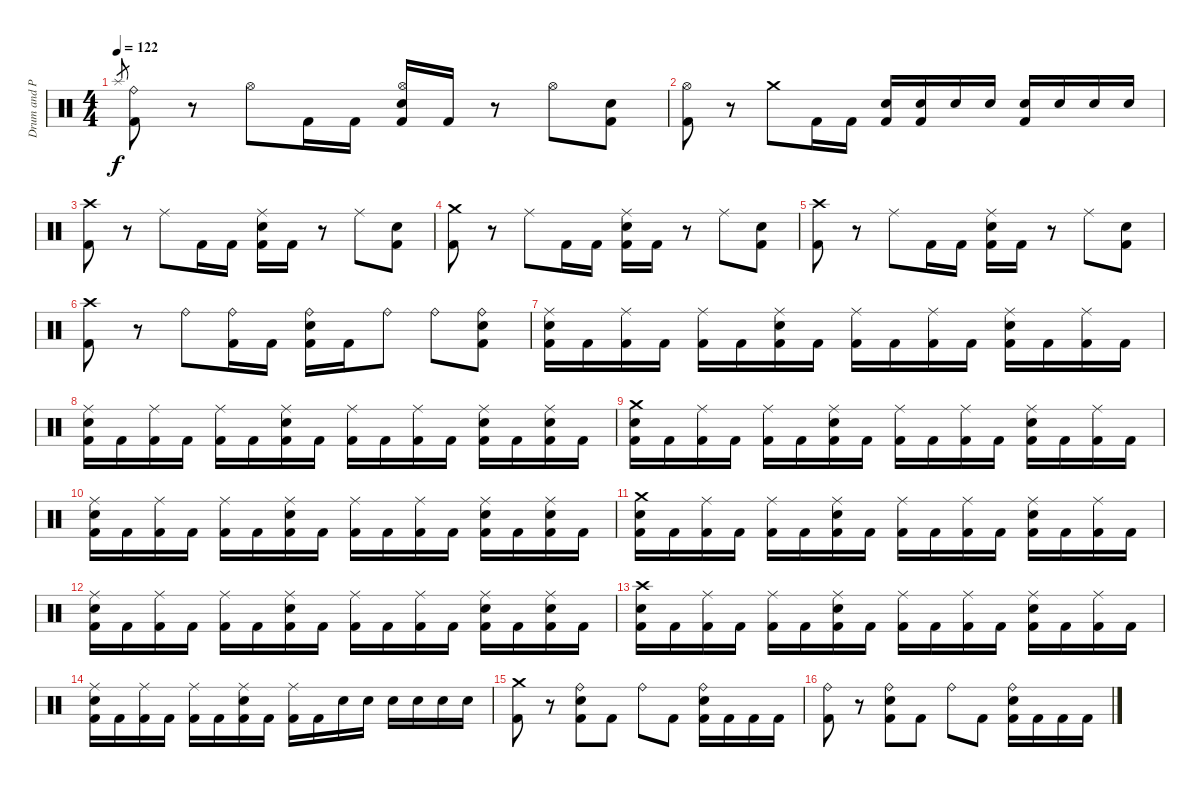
\track ("Drum and Persscusian" "Drum and P") {instrument percussion}
\staff {score}
\articulation defaults
\ts (4 4)
\tempo 122
\clef neutral
\ks c "Splash (hit)".8{gr dy f}
("Ride (bell)" "Kick (hit) 2").8 r.8 "Hi-Hat (open)".8 "Kick (hit) 2".16 "Kick (hit) 2".16 ("Hi-Hat (open)" "Snare (hit) 2" "Kick (hit) 2").16 "Kick (hit) 2".16 r.8 "Hi-Hat (open)".8 ("Snare (hit) 2" "Kick (hit) 2").8 |
("Hi-Hat (open)" "Kick (hit) 2").8 r.8 "Crash medium (hit)".8 "Kick (hit) 2".16 "Kick (hit) 2".16 ("Snare (hit) 2" "Kick (hit) 2").16 ("Snare (hit) 2" "Kick (hit) 2").16 "Snare (hit) 2".16 "Snare (hit) 2".16 ("Snare (hit) 2" "Kick (hit) 2").16 "Snare (hit) 2".16 "Snare (hit) 2".16 "Snare (hit) 2".16 |
("Crash high (hit)" "Kick (hit) 2").8 r.8 "Ride (middle)".8 "Kick (hit) 2".16 "Kick (hit) 2".16 ("Ride (middle)" "Snare (hit) 2" "Kick (hit) 2").16 "Kick (hit) 2".16 r.8 "Ride (middle)".8 ("Snare (hit) 2" "Kick (hit) 2").8 |
("Crash medium (hit)" "Kick (hit) 2").8 r.8 "Ride (middle)".8 "Kick (hit) 2".16 "Kick (hit) 2".16 ("Ride (middle)" "Snare (hit) 2" "Kick (hit) 2").16 "Kick (hit) 2".16 r.8 "Ride (middle)".8 ("Snare (hit) 2" "Kick (hit) 2").8 |
("Crash high (hit)" "Kick (hit) 2").8 r.8 "Ride (middle)".8 "Kick (hit) 2".16 "Kick (hit) 2".16 ("Ride (middle)" "Snare (hit) 2" "Kick (hit) 2").16 "Kick (hit) 2".16 r.8 "Ride (middle)".8 ("Snare (hit) 2" "Kick (hit) 2").8 |
("Crash high (hit)" "Kick (hit) 2").8 r.8 "Ride (bell)".8 ("Ride (bell)" "Kick (hit) 2").16 "Kick (hit) 2".16 ("Ride (bell)" "Snare (hit) 2" "Kick (hit) 2").16 "Kick (hit) 2".16 "Ride (bell)".8 "Ride (bell)".8 ("Ride (bell)" "Snare (hit) 2" "Kick (hit) 2").8 |
("Ride (middle)" "Snare (hit) 2" "Kick (hit) 2").16 "Kick (hit) 2".16 ("Ride (middle)" "Kick (hit) 2").16 "Kick (hit) 2".16 ("Ride (middle)" "Kick (hit) 2").16 "Kick (hit) 2".16 ("Ride (middle)" "Snare (hit) 2" "Kick (hit) 2").16 "Kick (hit) 2".16 ("Ride (middle)" "Kick (hit) 2").16 "Kick (hit) 2".16 ("Ride (middle)" "Kick (hit) 2").16 "Kick (hit) 2".16 ("Ride (middle)" "Snare (hit) 2" "Kick (hit) 2").16 "Kick (hit) 2".16 ("Ride (middle)" "Kick (hit) 2").16 "Kick (hit) 2".16 |
("Ride (middle)" "Snare (hit) 2" "Kick (hit) 2").16 "Kick (hit) 2".16 ("Ride (middle)" "Kick (hit) 2").16 "Kick (hit) 2".16 ("Ride (middle)" "Kick (hit) 2").16 "Kick (hit) 2".16 ("Ride (middle)" "Snare (hit) 2" "Kick (hit) 2").16 "Kick (hit) 2".16 ("Ride (middle)" "Kick (hit) 2").16 "Kick (hit) 2".16 ("Ride (middle)" "Kick (hit) 2").16 "Kick (hit) 2".16 ("Ride (middle)" "Snare (hit) 2" "Kick (hit) 2").16 "Kick (hit) 2".16 ("Ride (middle)" "Snare (hit) 2" "Kick (hit) 2").16 "Kick (hit) 2".16 |
("Crash medium (hit)" "Snare (hit) 2" "Kick (hit) 2").16 "Kick (hit) 2".16 ("Ride (middle)" "Kick (hit) 2").16 "Kick (hit) 2".16 ("Ride (middle)" "Kick (hit) 2").16 "Kick (hit) 2".16 ("Ride (middle)" "Snare (hit) 2" "Kick (hit) 2").16 "Kick (hit) 2".16 ("Ride (middle)" "Kick (hit) 2").16 "Kick (hit) 2".16 ("Ride (middle)" "Kick (hit) 2").16 "Kick (hit) 2".16 ("Ride (middle)" "Snare (hit) 2" "Kick (hit) 2").16 "Kick (hit) 2".16 ("Ride (middle)" "Kick (hit) 2").16 "Kick (hit) 2".16 |
("Ride (middle)" "Snare (hit) 2" "Kick (hit) 2").16 "Kick (hit) 2".16 ("Ride (middle)" "Kick (hit) 2").16 "Kick (hit) 2".16 ("Ride (middle)" "Kick (hit) 2").16 "Kick (hit) 2".16 ("Ride (middle)" "Snare (hit) 2" "Kick (hit) 2").16 "Kick (hit) 2".16 ("Ride (middle)" "Kick (hit) 2").16 "Kick (hit) 2".16 ("Ride (middle)" "Kick (hit) 2").16 "Kick (hit) 2".16 ("Ride (middle)" "Snare (hit) 2" "Kick (hit) 2").16 "Kick (hit) 2".16 ("Ride (middle)" "Snare (hit) 2" "Kick (hit) 2").16 "Kick (hit) 2".16 |
("Crash medium (hit)" "Snare (hit) 2" "Kick (hit) 2").16 "Kick (hit) 2".16 ("Ride (middle)" "Kick (hit) 2").16 "Kick (hit) 2".16 ("Ride (middle)" "Kick (hit) 2").16 "Kick (hit) 2".16 ("Ride (middle)" "Snare (hit) 2" "Kick (hit) 2").16 "Kick (hit) 2".16 ("Ride (middle)" "Kick (hit) 2").16 "Kick (hit) 2".16 ("Ride (middle)" "Kick (hit) 2").16 "Kick (hit) 2".16 ("Ride (middle)" "Snare (hit) 2" "Kick (hit) 2").16 "Kick (hit) 2".16 ("Ride (middle)" "Kick (hit) 2").16 "Kick (hit) 2".16 |
("Ride (middle)" "Snare (hit) 2" "Kick (hit) 2").16 "Kick (hit) 2".16 ("Ride (middle)" "Kick (hit) 2").16 "Kick (hit) 2".16 ("Ride (middle)" "Kick (hit) 2").16 "Kick (hit) 2".16 ("Ride (middle)" "Snare (hit) 2" "Kick (hit) 2").16 "Kick (hit) 2".16 ("Ride (middle)" "Kick (hit) 2").16 "Kick (hit) 2".16 ("Ride (middle)" "Kick (hit) 2").16 "Kick (hit) 2".16 ("Ride (middle)" "Snare (hit) 2" "Kick (hit) 2").16 "Kick (hit) 2".16 ("Ride (middle)" "Snare (hit) 2" "Kick (hit) 2").16 "Kick (hit) 2".16 |
("Crash high (hit)" "Snare (hit) 2" "Kick (hit) 2").16 "Kick (hit) 2".16 ("Ride (middle)" "Kick (hit) 2").16 "Kick (hit) 2".16 ("Ride (middle)" "Kick (hit) 2").16 "Kick (hit) 2".16 ("Ride (middle)" "Snare (hit) 2" "Kick (hit) 2").16 "Kick (hit) 2".16 ("Ride (middle)" "Kick (hit) 2").16 "Kick (hit) 2".16 ("Ride (middle)" "Kick (hit) 2").16 "Kick (hit) 2".16 ("Ride (middle)" "Snare (hit) 2" "Kick (hit) 2").16 "Kick (hit) 2".16 ("Ride (middle)" "Kick (hit) 2").16 "Kick (hit) 2".16 |
("Ride (middle)" "Snare (hit) 2" "Kick (hit) 2").16 "Kick (hit) 2".16 ("Ride (middle)" "Kick (hit) 2").16 "Kick (hit) 2".16 ("Ride (middle)" "Kick (hit) 2").16 "Kick (hit) 2".16 ("Ride (middle)" "Snare (hit) 2" "Kick (hit) 2").16 "Kick (hit) 2".16 ("Ride (middle)" "Kick (hit) 2").16 "Kick (hit) 2".16 "Snare (hit) 2".16 "Snare (hit) 2".16 "Snare (hit) 2".16 "Snare (hit) 2".16 "Snare (hit) 2".16 "Snare (hit) 2".16 |
("Crash medium (hit)" "Kick (hit) 2").8 r.8 ("Ride (bell)" "Snare (hit) 2" "Kick (hit) 2").8 "Kick (hit) 2".8 "Ride (bell)".8 "Kick (hit) 2".8 ("Ride (bell)" "Snare (hit) 2" "Kick (hit) 2").16 "Kick (hit) 2".16 "Kick (hit) 2".16 "Kick (hit) 2".16 |
("Ride (bell)" "Kick (hit) 2").8 r.8 ("Ride (bell)" "Snare (hit) 2" "Kick (hit) 2").8 "Kick (hit) 2".8 "Ride (bell)".8 "Kick (hit) 2".8 ("Ride (bell)" "Snare (hit) 2" "Kick (hit) 2").16 "Kick (hit) 2".16 "Kick (hit) 2".16 "Kick (hit) 2".16
